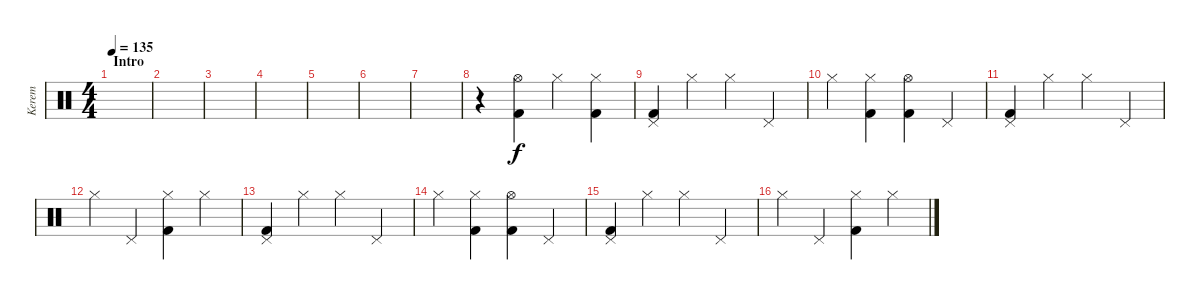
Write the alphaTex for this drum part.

\track ("Kerem" "Kerem") {instrument percussion}
\staff {score}
\articulation defaults
\ts (4 4)
\section ("" "Intro")
\tempo 135
\clef neutral
\ks c
|
|
|
|
|
|
|
r.4 ("Hi-Hat (open)" "Kick (hit) 2").4 "Hi-Hat (closed)".4 ("Hi-Hat (closed)" "Kick (hit) 2").4 |
("Pedal Hi-Hat (hit)" "Kick (hit) 2").4 "Hi-Hat (closed)".4 "Hi-Hat (closed)".4 "Pedal Hi-Hat (hit)".4 |
"Hi-Hat (closed)".4 ("Hi-Hat (closed)" "Kick (hit) 2").4 ("Hi-Hat (open)" "Kick (hit) 2").4 "Pedal Hi-Hat (hit)".4 |
("Pedal Hi-Hat (hit)" "Kick (hit) 2").4 "Hi-Hat (closed)".4 "Hi-Hat (closed)".4 "Pedal Hi-Hat (hit)".4 |
"Hi-Hat (closed)".4 "Pedal Hi-Hat (hit)".4 ("Hi-Hat (closed)" "Kick (hit) 2").4 "Hi-Hat (closed)".4 |
("Pedal Hi-Hat (hit)" "Kick (hit) 2").4 "Hi-Hat (closed)".4 "Hi-Hat (closed)".4 "Pedal Hi-Hat (hit)".4 |
"Hi-Hat (closed)".4 ("Hi-Hat (closed)" "Kick (hit) 2").4 ("Hi-Hat (open)" "Kick (hit) 2").4 "Pedal Hi-Hat (hit)".4 |
("Pedal Hi-Hat (hit)" "Kick (hit) 2").4 "Hi-Hat (closed)".4 "Hi-Hat (closed)".4 "Pedal Hi-Hat (hit)".4 |
"Hi-Hat (closed)".4 "Pedal Hi-Hat (hit)".4 ("Hi-Hat (closed)" "Kick (hit) 2").4 "Hi-Hat (closed)".4
